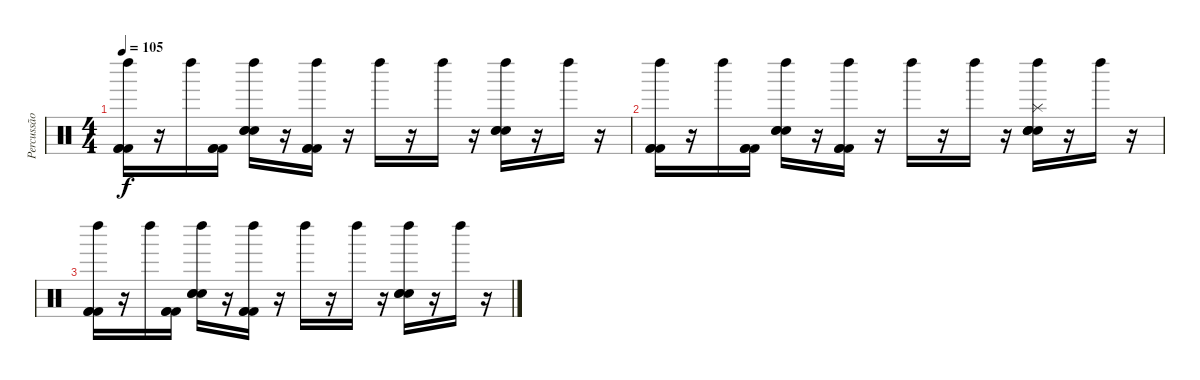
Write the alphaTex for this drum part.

\track ("Percussão" "Percussão") {instrument percussion}
\staff {score}
\articulation defaults
\ts (4 4)
\tempo 105
\clef neutral
\ks c
("Left Maraca (hit)" "Kick (hit) 2" "Kick (hit) 2" "Kick (hit) 2").16{dy f} r.16 "Left Maraca (hit)".16 ("Kick (hit) 2" "Kick (hit) 2" "Kick (hit) 2").16 ("Left Maraca (hit)" "Hand Clap (hit)" "Hand Clap (hit)" "Hand Clap (hit)").16 r.16 ("Left Maraca (hit)" "Kick (hit) 2" "Kick (hit) 2" "Kick (hit) 2").16 r.16 "Left Maraca (hit)".16 r.16 "Left Maraca (hit)".16 r.16 ("Left Maraca (hit)" "Hand Clap (hit)" "Hand Clap (hit)" "Hand Clap (hit)").16 r.16 "Left Maraca (hit)".16 r.16 |
("Left Maraca (hit)" "Kick (hit) 2" "Kick (hit) 2" "Kick (hit) 2").16 r.16 "Left Maraca (hit)".16 ("Kick (hit) 2" "Kick (hit) 2" "Kick (hit) 2").16 ("Left Maraca (hit)" "Hand Clap (hit)" "Hand Clap (hit)" "Hand Clap (hit)").16 r.16 ("Left Maraca (hit)" "Kick (hit) 2" "Kick (hit) 2" "Kick (hit) 2").16 r.16 "Left Maraca (hit)".16 r.16 "Left Maraca (hit)".16 r.16 ("Left Maraca (hit)" "Splash (hit)" "Hand Clap (hit)" "Hand Clap (hit)" "Hand Clap (hit)" "Snare (hit) 2").16 r.16 "Left Maraca (hit)".16 r.16 |
("Left Maraca (hit)" "Kick (hit) 2" "Kick (hit) 2" "Kick (hit) 2").16 r.16 "Left Maraca (hit)".16 ("Kick (hit) 2" "Kick (hit) 2" "Kick (hit) 2").16 ("Left Maraca (hit)" "Hand Clap (hit)" "Hand Clap (hit)" "Hand Clap (hit)").16 r.16 ("Left Maraca (hit)" "Kick (hit) 2" "Kick (hit) 2" "Kick (hit) 2").16 r.16 "Left Maraca (hit)".16 r.16 "Left Maraca (hit)".16 r.16 ("Left Maraca (hit)" "Hand Clap (hit)" "Hand Clap (hit)" "Hand Clap (hit)").16 r.16 "Left Maraca (hit)".16 r.16
